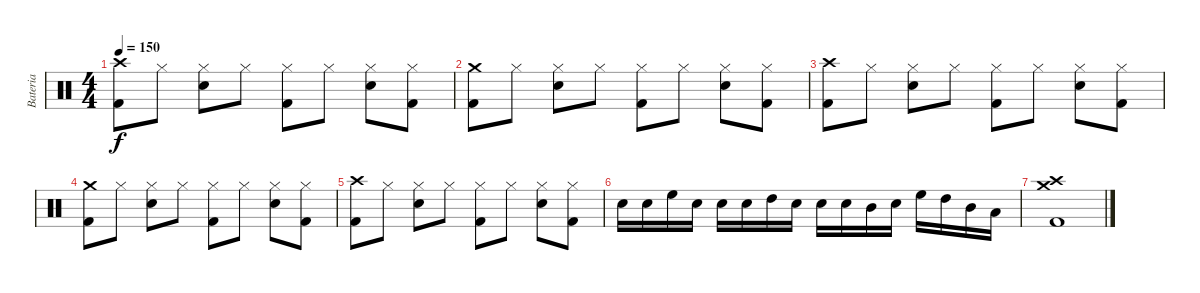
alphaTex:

\track ("Bateria" "Bateria") {instrument percussion}
\staff {score}
\articulation defaults
\ts (4 4)
\tempo 150
\clef neutral
\ks c
("Crash high (hit)" "Kick (hit) 2").8{dy f} "Hi-Hat (closed)".8 ("Hi-Hat (closed)" "Snare (hit) 2").8 "Hi-Hat (closed)".8 ("Hi-Hat (closed)" "Kick (hit) 2").8 "Hi-Hat (closed)".8 ("Hi-Hat (closed)" "Snare (hit) 2").8 ("Hi-Hat (closed)" "Kick (hit) 2").8 |
("Crash medium (hit)" "Kick (hit) 2").8 "Hi-Hat (closed)".8 ("Hi-Hat (closed)" "Snare (hit) 2").8 "Hi-Hat (closed)".8 ("Hi-Hat (closed)" "Kick (hit) 2").8 "Hi-Hat (closed)".8 ("Hi-Hat (closed)" "Snare (hit) 2").8 ("Hi-Hat (closed)" "Kick (hit) 2").8 |
("Crash high (hit)" "Kick (hit) 2").8 "Hi-Hat (closed)".8 ("Hi-Hat (closed)" "Snare (hit) 2").8 "Hi-Hat (closed)".8 ("Hi-Hat (closed)" "Kick (hit) 2").8 "Hi-Hat (closed)".8 ("Hi-Hat (closed)" "Snare (hit) 2").8 ("Hi-Hat (closed)" "Kick (hit) 2").8 |
("Crash medium (hit)" "Kick (hit) 2").8 "Hi-Hat (closed)".8 ("Hi-Hat (closed)" "Snare (hit) 2").8 "Hi-Hat (closed)".8 ("Hi-Hat (closed)" "Kick (hit) 2").8 "Hi-Hat (closed)".8 ("Hi-Hat (closed)" "Snare (hit) 2").8 ("Hi-Hat (closed)" "Kick (hit) 2").8 |
("Crash high (hit)" "Kick (hit) 2").8 "Hi-Hat (closed)".8 ("Hi-Hat (closed)" "Snare (hit) 2").8 "Hi-Hat (closed)".8 ("Hi-Hat (closed)" "Kick (hit) 2").8 "Hi-Hat (closed)".8 ("Hi-Hat (closed)" "Snare (hit) 2").8 ("Hi-Hat (closed)" "Kick (hit) 2").8 |
"Snare (hit) 2".16 "Snare (hit) 2".16 "High Floor Tom (hit)".16 "Snare (hit) 2".16 "Snare (hit) 2".16 "Snare (hit) 2".16 "High Tom (hit)".16 "Snare (hit) 2".16 "Snare (hit) 2".16 "Snare (hit) 2".16 "Mid Tom (hit)".16 "Snare (hit) 2".16 "High Floor Tom (hit)".16 "High Tom (hit)".16 "Mid Tom (hit)".16 "Low Tom (hit)".16 |
("Crash medium (hit)" "Crash high (hit)" "Kick (hit) 2").1
